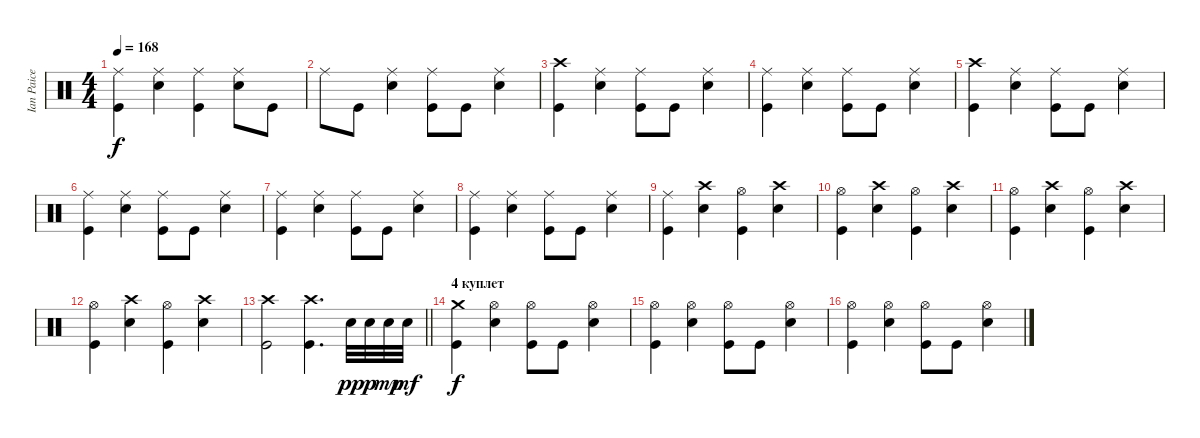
\track ("Ian Paice" "Ian Paice") {instrument percussion}
\staff {score}
\articulation defaults
\ts (4 4)
\tempo 168
\clef neutral
\ks c
("Kick (hit)" "Ride (middle)").4{dy f} ("Ride (middle)" "Snare (hit) 2").4 ("Ride (middle)" "Kick (hit)").4 ("Ride (middle)" "Snare (hit) 2").8 "Kick (hit)".8 |
"Ride (middle)".8 "Kick (hit)".8 ("Snare (hit) 2" "Ride (middle)").4 ("Kick (hit)" "Ride (middle)").8 "Kick (hit)".8 ("Ride (middle)" "Snare (hit) 2").4 |
("Crash high (hit)" "Kick (hit)").4 ("Ride (middle)" "Snare (hit) 2").4 ("Kick (hit)" "Ride (middle)").8 "Kick (hit)".8 ("Snare (hit) 2" "Ride (middle)").4 |
("Kick (hit)" "Ride (middle)").4 ("Ride (middle)" "Snare (hit) 2").4 ("Ride (middle)" "Kick (hit)").8 "Kick (hit)".8 ("Snare (hit) 2" "Ride (middle)").4 |
("Crash high (hit)" "Kick (hit)").4 ("Ride (middle)" "Snare (hit) 2").4 ("Kick (hit)" "Ride (middle)").8 "Kick (hit)".8 ("Snare (hit) 2" "Ride (middle)").4 |
("Ride (middle)" "Kick (hit)").4 ("Snare (hit) 2" "Ride (middle)").4 ("Kick (hit)" "Ride (middle)").8 "Kick (hit)".8 ("Ride (middle)" "Snare (hit) 2").4 |
("Ride (middle)" "Kick (hit)").4 ("Snare (hit) 2" "Ride (middle)").4 ("Kick (hit)" "Ride (middle)").8 "Kick (hit)".8 ("Ride (middle)" "Snare (hit) 2").4 |
("Ride (middle)" "Kick (hit)").4 ("Snare (hit) 2" "Ride (middle)").4 ("Ride (middle)" "Kick (hit)").8 "Kick (hit)".8 ("Snare (hit) 2" "Ride (middle)").4 |
("Kick (hit)" "Ride (middle)").4 ("Crash high (hit)" "Snare (hit) 2").4 ("Hi-Hat (open)" "Kick (hit)").4 ("Crash high (hit)" "Snare (hit) 2").4 |
("Hi-Hat (open)" "Kick (hit)").4 ("Crash high (hit)" "Snare (hit) 2").4 ("Kick (hit)" "Hi-Hat (open)").4 ("Crash high (hit)" "Snare (hit) 2").4 |
("Kick (hit)" "Hi-Hat (open)").4 ("Snare (hit) 2" "Crash high (hit)").4 ("Kick (hit)" "Hi-Hat (open)").4 ("Crash high (hit)" "Snare (hit) 2").4 |
("Kick (hit)" "Hi-Hat (open)").4 ("Snare (hit) 2" "Crash high (hit)").4 ("Kick (hit)" "Hi-Hat (open)").4 ("Crash high (hit)" "Snare (hit) 2").4 |
\barLineRight lightlight
("Crash high (hit)" "Kick (hit)").2 ("Crash high (hit)" "Kick (hit)").4{d} "Snare (hit) 2".32{dy pp} "Snare (hit) 2".32{dy p} "Snare (hit) 2".32{dy mp} "Snare (hit) 2".32{dy mf} |
\section ("" "4 куплет")
("Kick (hit)" "Crash medium (hit)").4{dy f} ("Snare (hit) 2" "Hi-Hat (open)").4 ("Kick (hit)" "Hi-Hat (open)").8 "Kick (hit)".8 ("Hi-Hat (open)" "Snare (hit) 2").4 |
("Hi-Hat (open)" "Kick (hit)").4 ("Hi-Hat (open)" "Snare (hit) 2").4 ("Hi-Hat (open)" "Kick (hit)").8 "Kick (hit)".8 ("Snare (hit) 2" "Hi-Hat (open)").4 |
("Hi-Hat (open)" "Kick (hit)").4 ("Hi-Hat (open)" "Snare (hit) 2").4 ("Hi-Hat (open)" "Kick (hit)").8 "Kick (hit)".8 ("Snare (hit) 2" "Hi-Hat (open)").4
